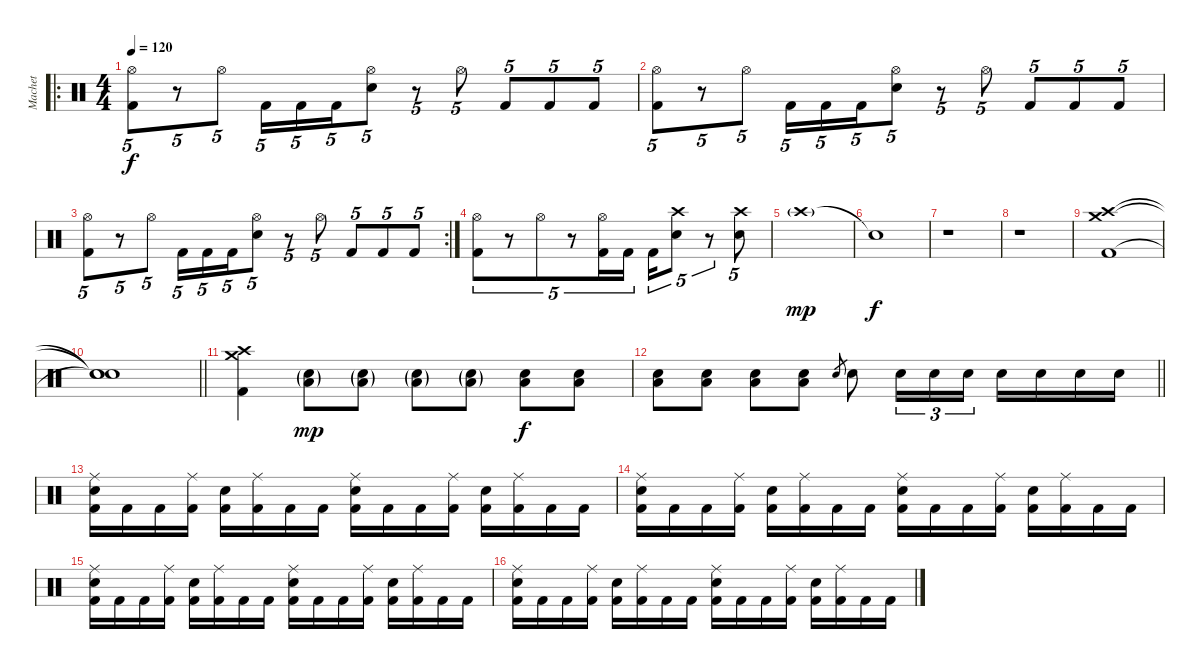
\track ("Machet" "Machet") {instrument percussion}
\staff {score}
\articulation defaults
\ro
\ts (4 4)
\tempo 120
\clef neutral
\ks c
("Hi-Hat (open)" "Kick (hit) 2").8{tu (5 4) dy f} r.8{tu (5 4)} "Hi-Hat (open)".8{tu (5 4)} "Kick (hit) 2".16{tu (5 4)} "Kick (hit) 2".16{tu (5 4)} "Kick (hit) 2".16{tu (5 4)} ("Hi-Hat (open)" "Snare (hit) 2").8{tu (5 4)} r.8{tu (5 4)} "Hi-Hat (open)".8{tu (5 4)} "Kick (hit) 2".8{tu (5 4)} "Kick (hit) 2".8{tu (5 4)} "Kick (hit) 2".8{tu (5 4)} |
("Hi-Hat (open)" "Kick (hit) 2").8{tu (5 4)} r.8{tu (5 4)} "Hi-Hat (open)".8{tu (5 4)} "Kick (hit) 2".16{tu (5 4)} "Kick (hit) 2".16{tu (5 4)} "Kick (hit) 2".16{tu (5 4)} ("Hi-Hat (open)" "Snare (hit) 2").8{tu (5 4)} r.8{tu (5 4)} "Hi-Hat (open)".8{tu (5 4)} "Kick (hit) 2".8{tu (5 4)} "Kick (hit) 2".8{tu (5 4)} "Kick (hit) 2".8{tu (5 4)} |
\rc 2
("Hi-Hat (open)" "Kick (hit) 2").8{tu (5 4)} r.8{tu (5 4)} "Hi-Hat (open)".8{tu (5 4)} "Kick (hit) 2".16{tu (5 4)} "Kick (hit) 2".16{tu (5 4)} "Kick (hit) 2".16{tu (5 4)} ("Hi-Hat (open)" "Snare (hit) 2").8{tu (5 4)} r.8{tu (5 4)} "Hi-Hat (open)".8{tu (5 4)} "Kick (hit) 2".8{tu (5 4)} "Kick (hit) 2".8{tu (5 4)} "Kick (hit) 2".8{tu (5 4)} |
("Hi-Hat (open)" "Kick (hit) 2").8{tu (5 4)} r.8{tu (5 4)} "Hi-Hat (open)".8{tu (5 4)} r.8{tu (5 4)} ("Hi-Hat (open)" "Kick (hit) 2").16{tu (5 4)} "Kick (hit) 2".16{tu (5 4)} "Kick (hit) 2".16{tu (5 4)} ("Crash high (hit)" "Snare (hit) 2").8{tu (5 4)} r.8{tu (5 4)} ("Crash high (hit)" "Snare (hit) 2").8{tu (5 4)} |
"Crash high (hit)"{g}.1{dy mp} |
"Snare (hit)"{t}.1{dy f} |
r.1 |
r.1 |
("Crash high (hit)" "Crash medium (hit)" "Kick (hit) 2").1 |
\barLineRight lightlight
("Snare (hit)"{t} "Snare (hit)"{t} "Snare (hit)"{t}).1 |
("Crash high (hit)" "Crash medium (hit)" "Kick (hit) 2").4 ("Low Tom (hit)"{g} "Snare (hit) 2"{g}).8{dy mp} ("Low Tom (hit)"{g} "Snare (hit) 2"{g}).8 ("Low Tom (hit)"{g} "Snare (hit) 2"{g}).8 ("Low Tom (hit)"{g} "Snare (hit) 2"{g}).8 ("Low Tom (hit)" "Snare (hit) 2").8{dy f} ("Low Tom (hit)" "Snare (hit) 2").8 |
\barLineRight lightlight
("Low Tom (hit)" "Snare (hit) 2").8 ("Low Tom (hit)" "Snare (hit) 2").8 ("Low Tom (hit)" "Snare (hit) 2").8 ("Low Tom (hit)" "Snare (hit) 2").8 "Snare (hit) 2".8{gr} "Snare (hit) 2".8 "Snare (hit) 2".16{tu (3 2)} "Snare (hit) 2".16{tu (3 2)} "Snare (hit) 2".16{tu (3 2)} "Snare (hit) 2".16 "Snare (hit) 2".16 "Snare (hit) 2".16 "Snare (hit) 2".16 |
("Ride (middle)" "Snare (hit) 2" "Kick (hit) 2").16 "Kick (hit) 2".16 "Kick (hit) 2".16 ("Ride (middle)" "Kick (hit) 2").16 ("Snare (hit) 2" "Kick (hit) 2").16 ("Ride (middle)" "Kick (hit) 2").16 "Kick (hit) 2".16 "Kick (hit) 2".16 ("Ride (middle)" "Snare (hit) 2" "Kick (hit) 2").16 "Kick (hit) 2".16 "Kick (hit) 2".16 ("Ride (middle)" "Kick (hit) 2").16 ("Snare (hit) 2" "Kick (hit) 2").16 ("Ride (middle)" "Kick (hit) 2").16 "Kick (hit) 2".16 "Kick (hit) 2".16 |
("Ride (middle)" "Snare (hit) 2" "Kick (hit) 2").16 "Kick (hit) 2".16 "Kick (hit) 2".16 ("Ride (middle)" "Kick (hit) 2").16 ("Snare (hit) 2" "Kick (hit) 2").16 ("Ride (middle)" "Kick (hit) 2").16 "Kick (hit) 2".16 "Kick (hit) 2".16 ("Ride (middle)" "Snare (hit) 2" "Kick (hit) 2").16 "Kick (hit) 2".16 "Kick (hit) 2".16 ("Ride (middle)" "Kick (hit) 2").16 ("Snare (hit) 2" "Kick (hit) 2").16 ("Ride (middle)" "Kick (hit) 2").16 "Kick (hit) 2".16 "Kick (hit) 2".16 |
("Ride (middle)" "Snare (hit) 2" "Kick (hit) 2").16 "Kick (hit) 2".16 "Kick (hit) 2".16 ("Ride (middle)" "Kick (hit) 2").16 ("Snare (hit) 2" "Kick (hit) 2").16 ("Ride (middle)" "Kick (hit) 2").16 "Kick (hit) 2".16 "Kick (hit) 2".16 ("Ride (middle)" "Snare (hit) 2" "Kick (hit) 2").16 "Kick (hit) 2".16 "Kick (hit) 2".16 ("Ride (middle)" "Kick (hit) 2").16 ("Snare (hit) 2" "Kick (hit) 2").16 ("Ride (middle)" "Kick (hit) 2").16 "Kick (hit) 2".16 "Kick (hit) 2".16 |
("Ride (middle)" "Snare (hit) 2" "Kick (hit) 2").16 "Kick (hit) 2".16 "Kick (hit) 2".16 ("Ride (middle)" "Kick (hit) 2").16 ("Snare (hit) 2" "Kick (hit) 2").16 ("Ride (middle)" "Kick (hit) 2").16 "Kick (hit) 2".16 "Kick (hit) 2".16 ("Ride (middle)" "Snare (hit) 2" "Kick (hit) 2").16 "Kick (hit) 2".16 "Kick (hit) 2".16 ("Ride (middle)" "Kick (hit) 2").16 ("Snare (hit) 2" "Kick (hit) 2").16 ("Ride (middle)" "Kick (hit) 2").16 "Kick (hit) 2".16 "Kick (hit) 2".16
